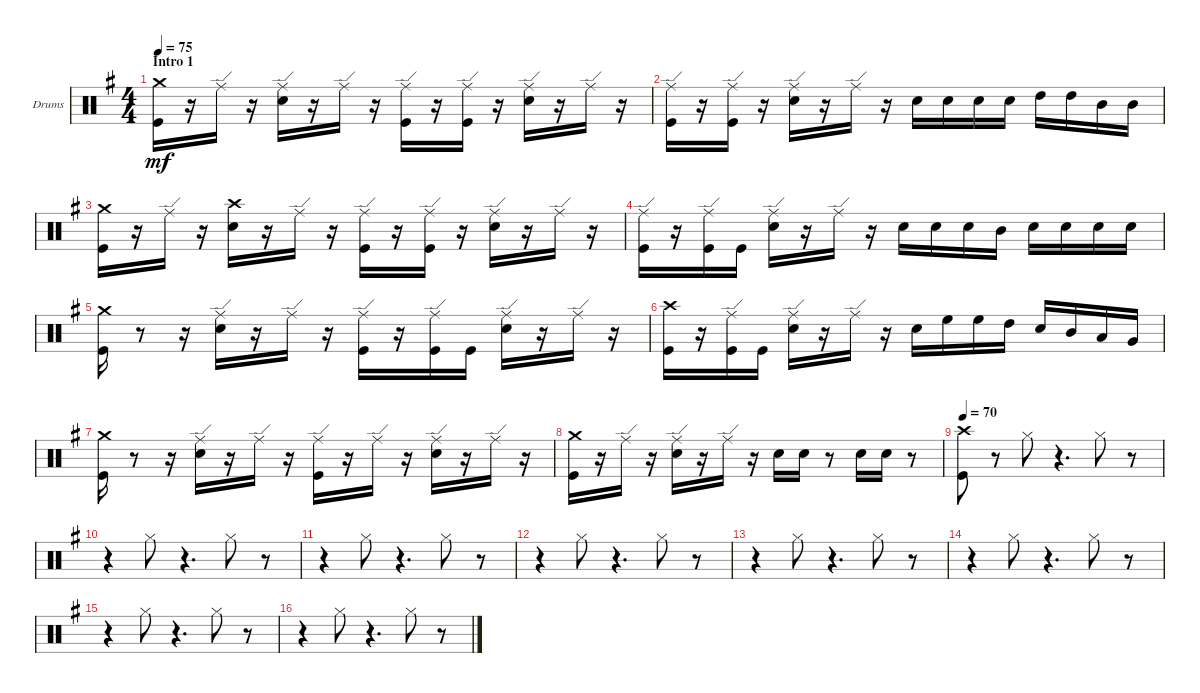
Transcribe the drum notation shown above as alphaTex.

\bracketExtendMode groupsimilarinstruments
\firstSystemTrackNameOrientation horizontal
\otherSystemsTrackNameOrientation horizontal
\track ("Drumkit" "Drums") {instrument percussion}
\staff {score}
\articulation defaults
\ts (4 4)
\beaming (8 2 2 2 2)
\section ("" "Intro 1")
\tempo 75
\clef neutral
\ks eminor
("Kick (hit)" "Crash medium (hit)").16{dy mf} r.16 "Ride (edge)".16 r.16 ("Snare (hit) 2" "Ride (edge)").16 r.16 "Ride (edge)".16 r.16 ("Kick (hit)" "Ride (edge)").16 r.16 ("Kick (hit)" "Ride (edge)").16 r.16 ("Snare (hit) 2" "Ride (edge)").16 r.16 "Ride (edge)".16 r.16 |
("Kick (hit)" "Ride (edge)").16 r.16 ("Kick (hit)" "Ride (edge)").16 r.16 ("Snare (hit) 2" "Ride (edge)").16 r.16 "Ride (edge)".16 r.16 "Snare (hit) 2".16 "Snare (hit) 2".16 "Snare (hit) 2".16 "Snare (hit) 2".16 "High Tom (hit)".16 "High Tom (hit)".16 "Mid Tom (hit)".16 "Mid Tom (hit)".16 |
("Kick (hit)" "Crash medium (hit)").16 r.16 "Ride (edge)".16 r.16 ("Snare (hit) 2" "Crash high (hit)").16 r.16 "Ride (edge)".16 r.16 ("Kick (hit)" "Ride (edge)").16 r.16 ("Kick (hit)" "Ride (edge)").16 r.16 ("Snare (hit) 2" "Ride (edge)").16 r.16 "Ride (edge)".16 r.16 |
("Kick (hit)" "Ride (edge)").16 r.16 ("Kick (hit)" "Ride (edge)").16 "Kick (hit)".16 ("Snare (hit) 2" "Ride (edge)").16 r.16 "Ride (edge)".16 r.16 "Snare (hit) 2".16 "Snare (hit) 2".16 "Snare (hit) 2".16 "Mid Tom (hit)".16 "Snare (hit) 2".16 "Snare (hit) 2".16 "Snare (hit) 2".16 "Snare (hit) 2".16 |
("Kick (hit)" "Crash medium (hit)").16 r.8 r.16 ("Snare (hit) 2" "Ride (edge)").16 r.16 "Ride (edge)".16 r.16 ("Kick (hit)" "Ride (edge)").16 r.16 ("Kick (hit)" "Ride (edge)").16 "Kick (hit)".16 ("Snare (hit) 2" "Ride (edge)").16 r.16 "Ride (edge)".16 r.16 |
("Kick (hit)" "Crash high (hit)").16 r.16 ("Kick (hit)" "Ride (edge)").16 "Kick (hit)".16 ("Snare (hit) 2" "Ride (edge)").16 r.16 "Ride (edge)".16 r.16 "Snare (hit) 2".16 "High Floor Tom (hit)".16 "High Floor Tom (hit)".16 "High Tom (hit)".16 "Snare (hit) 2".16 "Mid Tom (hit)".16 "Low Tom (hit)".16 "Very Low Tom (hit)".16 |
("Kick (hit)" "Crash medium (hit)").16 r.8 r.16 ("Snare (hit) 2" "Ride (edge)").16 r.16 "Ride (edge)".16 r.16 ("Kick (hit)" "Ride (edge)").16 r.16 "Ride (edge)".16 r.16 ("Snare (hit) 2" "Ride (edge)").16 r.16 "Ride (edge)".16 r.16 |
("Kick (hit)" "Crash medium (hit)").16 r.16 "Ride (edge)".16 r.16 ("Snare (hit) 2" "Ride (edge)").16 r.16 "Ride (edge)".16 r.16 "Snare (hit) 2".16 "Snare (hit) 2".16 r.8 "Snare (hit) 2".16 "Snare (hit) 2".16 r.8 |
\tempo 70
("Kick (hit)" "Crash high (hit)").8 r.8 "Hi-Hat (closed)".8 r.4{d} "Hi-Hat (closed)".8 r.8 |
r.4 "Hi-Hat (closed)".8 r.4{d} "Hi-Hat (closed)".8 r.8 |
r.4 "Hi-Hat (closed)".8 r.4{d} "Hi-Hat (closed)".8 r.8 |
r.4 "Hi-Hat (closed)".8 r.4{d} "Hi-Hat (closed)".8 r.8 |
r.4 "Hi-Hat (closed)".8 r.4{d} "Hi-Hat (closed)".8 r.8 |
r.4 "Hi-Hat (closed)".8 r.4{d} "Hi-Hat (closed)".8 r.8 |
r.4 "Hi-Hat (closed)".8 r.4{d} "Hi-Hat (closed)".8 r.8 |
r.4 "Hi-Hat (closed)".8 r.4{d} "Hi-Hat (closed)".8 r.8
